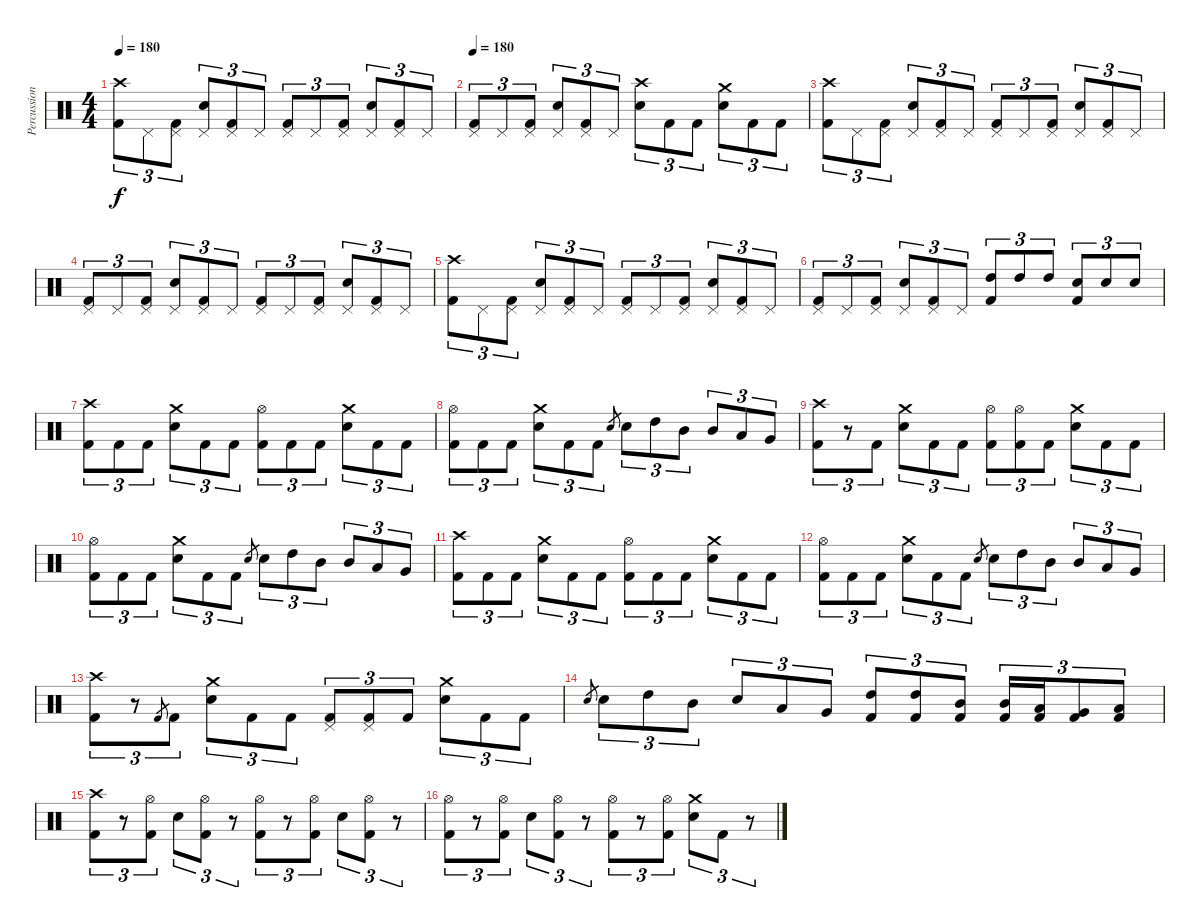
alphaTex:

\track ("Percussion" "Percussion") {instrument percussion}
\staff {score}
\articulation defaults
\ts (4 4)
\tempo 180
\clef neutral
\ks c
("Crash high (hit)" "Kick (hit) 2").8{tu (3 2) dy f} "Pedal Hi-Hat (hit)".8{tu (3 2)} ("Pedal Hi-Hat (hit)" "Kick (hit) 2").8{tu (3 2)} ("Pedal Hi-Hat (hit)" "Snare (hit) 2").8{tu (3 2)} ("Pedal Hi-Hat (hit)" "Kick (hit) 2").8{tu (3 2)} "Pedal Hi-Hat (hit)".8{tu (3 2)} ("Pedal Hi-Hat (hit)" "Kick (hit) 2").8{tu (3 2)} "Pedal Hi-Hat (hit)".8{tu (3 2)} ("Pedal Hi-Hat (hit)" "Kick (hit) 2").8{tu (3 2)} ("Pedal Hi-Hat (hit)" "Snare (hit) 2").8{tu (3 2)} ("Pedal Hi-Hat (hit)" "Kick (hit) 2").8{tu (3 2)} "Pedal Hi-Hat (hit)".8{tu (3 2)} |
\tempo 180
("Pedal Hi-Hat (hit)" "Kick (hit) 2").8{tu (3 2)} "Pedal Hi-Hat (hit)".8{tu (3 2)} ("Pedal Hi-Hat (hit)" "Kick (hit) 2").8{tu (3 2)} ("Pedal Hi-Hat (hit)" "Snare (hit) 2").8{tu (3 2)} ("Pedal Hi-Hat (hit)" "Kick (hit) 2").8{tu (3 2)} "Pedal Hi-Hat (hit)".8{tu (3 2)} ("Crash high (hit)" "Snare (hit) 2").8{tu (3 2)} "Kick (hit) 2".8{tu (3 2)} "Kick (hit) 2".8{tu (3 2)} ("Crash medium (hit)" "Snare (hit) 2").8{tu (3 2)} "Kick (hit) 2".8{tu (3 2)} "Kick (hit) 2".8{tu (3 2)} |
("Crash high (hit)" "Kick (hit) 2").8{tu (3 2)} "Pedal Hi-Hat (hit)".8{tu (3 2)} ("Pedal Hi-Hat (hit)" "Kick (hit) 2").8{tu (3 2)} ("Pedal Hi-Hat (hit)" "Snare (hit) 2").8{tu (3 2)} ("Pedal Hi-Hat (hit)" "Kick (hit) 2").8{tu (3 2)} "Pedal Hi-Hat (hit)".8{tu (3 2)} ("Pedal Hi-Hat (hit)" "Kick (hit) 2").8{tu (3 2)} "Pedal Hi-Hat (hit)".8{tu (3 2)} ("Pedal Hi-Hat (hit)" "Kick (hit) 2").8{tu (3 2)} ("Pedal Hi-Hat (hit)" "Snare (hit) 2").8{tu (3 2)} ("Pedal Hi-Hat (hit)" "Kick (hit) 2").8{tu (3 2)} "Pedal Hi-Hat (hit)".8{tu (3 2)} |
("Pedal Hi-Hat (hit)" "Kick (hit) 2").8{tu (3 2)} "Pedal Hi-Hat (hit)".8{tu (3 2)} ("Pedal Hi-Hat (hit)" "Kick (hit) 2").8{tu (3 2)} ("Pedal Hi-Hat (hit)" "Snare (hit) 2").8{tu (3 2)} ("Pedal Hi-Hat (hit)" "Kick (hit) 2").8{tu (3 2)} "Pedal Hi-Hat (hit)".8{tu (3 2)} ("Pedal Hi-Hat (hit)" "Kick (hit) 2").8{tu (3 2)} "Pedal Hi-Hat (hit)".8{tu (3 2)} ("Pedal Hi-Hat (hit)" "Kick (hit) 2").8{tu (3 2)} ("Pedal Hi-Hat (hit)" "Snare (hit) 2").8{tu (3 2)} ("Pedal Hi-Hat (hit)" "Kick (hit) 2").8{tu (3 2)} "Pedal Hi-Hat (hit)".8{tu (3 2)} |
("Crash high (hit)" "Kick (hit) 2").8{tu (3 2)} "Pedal Hi-Hat (hit)".8{tu (3 2)} ("Pedal Hi-Hat (hit)" "Kick (hit) 2").8{tu (3 2)} ("Pedal Hi-Hat (hit)" "Snare (hit) 2").8{tu (3 2)} ("Pedal Hi-Hat (hit)" "Kick (hit) 2").8{tu (3 2)} "Pedal Hi-Hat (hit)".8{tu (3 2)} ("Pedal Hi-Hat (hit)" "Kick (hit) 2").8{tu (3 2)} "Pedal Hi-Hat (hit)".8{tu (3 2)} ("Pedal Hi-Hat (hit)" "Kick (hit) 2").8{tu (3 2)} ("Pedal Hi-Hat (hit)" "Snare (hit) 2").8{tu (3 2)} ("Pedal Hi-Hat (hit)" "Kick (hit) 2").8{tu (3 2)} "Pedal Hi-Hat (hit)".8{tu (3 2)} |
("Pedal Hi-Hat (hit)" "Kick (hit) 2").8{tu (3 2)} "Pedal Hi-Hat (hit)".8{tu (3 2)} ("Pedal Hi-Hat (hit)" "Kick (hit) 2").8{tu (3 2)} ("Pedal Hi-Hat (hit)" "Snare (hit) 2").8{tu (3 2)} ("Pedal Hi-Hat (hit)" "Kick (hit) 2").8{tu (3 2)} "Pedal Hi-Hat (hit)".8{tu (3 2)} ("High Tom (hit)" "Kick (hit) 2").8{tu (3 2)} "High Tom (hit)".8{tu (3 2)} "High Tom (hit)".8{tu (3 2)} ("Snare (hit) 2" "Kick (hit) 2").8{tu (3 2)} "Snare (hit) 2".8{tu (3 2)} "Snare (hit) 2".8{tu (3 2)} |
("Crash high (hit)" "Kick (hit) 2").8{tu (3 2)} "Kick (hit) 2".8{tu (3 2)} "Kick (hit) 2".8{tu (3 2)} ("Crash medium (hit)" "Snare (hit) 2").8{tu (3 2)} "Kick (hit) 2".8{tu (3 2)} "Kick (hit) 2".8{tu (3 2)} ("Hi-Hat (open)" "Kick (hit) 2").8{tu (3 2)} "Kick (hit) 2".8{tu (3 2)} "Kick (hit) 2".8{tu (3 2)} ("Crash medium (hit)" "Snare (hit) 2").8{tu (3 2)} "Kick (hit) 2".8{tu (3 2)} "Kick (hit) 2".8{tu (3 2)} |
("Hi-Hat (open)" "Kick (hit) 2").8{tu (3 2)} "Kick (hit) 2".8{tu (3 2)} "Kick (hit) 2".8{tu (3 2)} ("Crash medium (hit)" "Snare (hit) 2").8{tu (3 2)} "Kick (hit) 2".8{tu (3 2)} "Kick (hit) 2".8{tu (3 2)} "Snare (hit) 2".8{gr} "Snare (hit) 2".8{tu (3 2)} "High Tom (hit)".8{tu (3 2)} "Mid Tom (hit)".8{tu (3 2)} "Mid Tom (hit)".8{tu (3 2)} "Low Tom (hit)".8{tu (3 2)} "Very Low Tom (hit)".8{tu (3 2)} |
("Crash high (hit)" "Kick (hit) 2").8{tu (3 2)} r.8{tu (3 2)} "Kick (hit) 2".8{tu (3 2)} ("Crash medium (hit)" "Snare (hit) 2").8{tu (3 2)} "Kick (hit) 2".8{tu (3 2)} "Kick (hit) 2".8{tu (3 2)} ("Hi-Hat (open)" "Kick (hit) 2").8{tu (3 2)} ("Hi-Hat (open)" "Kick (hit) 2").8{tu (3 2)} "Kick (hit) 2".8{tu (3 2)} ("Crash medium (hit)" "Snare (hit) 2").8{tu (3 2)} "Kick (hit) 2".8{tu (3 2)} "Kick (hit) 2".8{tu (3 2)} |
("Hi-Hat (open)" "Kick (hit) 2").8{tu (3 2)} "Kick (hit) 2".8{tu (3 2)} "Kick (hit) 2".8{tu (3 2)} ("Crash medium (hit)" "Snare (hit) 2").8{tu (3 2)} "Kick (hit) 2".8{tu (3 2)} "Kick (hit) 2".8{tu (3 2)} "Snare (hit) 2".8{gr} "Snare (hit) 2".8{tu (3 2)} "High Tom (hit)".8{tu (3 2)} "Mid Tom (hit)".8{tu (3 2)} "Mid Tom (hit)".8{tu (3 2)} "Low Tom (hit)".8{tu (3 2)} "Very Low Tom (hit)".8{tu (3 2)} |
("Crash high (hit)" "Kick (hit) 2").8{tu (3 2)} "Kick (hit) 2".8{tu (3 2)} "Kick (hit) 2".8{tu (3 2)} ("Crash medium (hit)" "Snare (hit) 2").8{tu (3 2)} "Kick (hit) 2".8{tu (3 2)} "Kick (hit) 2".8{tu (3 2)} ("Hi-Hat (open)" "Kick (hit) 2").8{tu (3 2)} "Kick (hit) 2".8{tu (3 2)} "Kick (hit) 2".8{tu (3 2)} ("Crash medium (hit)" "Snare (hit) 2").8{tu (3 2)} "Kick (hit) 2".8{tu (3 2)} "Kick (hit) 2".8{tu (3 2)} |
("Hi-Hat (open)" "Kick (hit) 2").8{tu (3 2)} "Kick (hit) 2".8{tu (3 2)} "Kick (hit) 2".8{tu (3 2)} ("Crash medium (hit)" "Snare (hit) 2").8{tu (3 2)} "Kick (hit) 2".8{tu (3 2)} "Kick (hit) 2".8{tu (3 2)} "Snare (hit) 2".8{gr} "Snare (hit) 2".8{tu (3 2)} "High Tom (hit)".8{tu (3 2)} "Mid Tom (hit)".8{tu (3 2)} "Mid Tom (hit)".8{tu (3 2)} "Low Tom (hit)".8{tu (3 2)} "Very Low Tom (hit)".8{tu (3 2)} |
("Crash high (hit)" "Kick (hit) 2").8{tu (3 2)} r.8{tu (3 2)} "Kick (hit) 2".8{gr} "Kick (hit) 2".8{tu (3 2)} ("Crash medium (hit)" "Snare (hit) 2").8{tu (3 2)} "Kick (hit) 2".8{tu (3 2)} "Kick (hit) 2".8{tu (3 2)} ("Pedal Hi-Hat (hit)" "Kick (hit) 2").8{tu (3 2)} ("Pedal Hi-Hat (hit)" "Kick (hit) 2").8{tu (3 2)} "Kick (hit) 2".8{tu (3 2)} ("Crash medium (hit)" "Snare (hit) 2").8{tu (3 2)} "Kick (hit) 2".8{tu (3 2)} "Kick (hit) 2".8{tu (3 2)} |
"Snare (hit) 2".8{gr} "Snare (hit) 2".8{tu (3 2)} "High Tom (hit)".8{tu (3 2)} "Mid Tom (hit)".8{tu (3 2)} "Snare (hit) 2".8{tu (3 2)} "Low Tom (hit)".8{tu (3 2)} "Very Low Tom (hit)".8{tu (3 2)} ("High Tom (hit)" "Kick (hit) 2").8{tu (3 2)} ("High Tom (hit)" "Kick (hit) 2").8{tu (3 2)} ("Mid Tom (hit)" "Kick (hit) 2").8{tu (3 2)} ("Mid Tom (hit)" "Kick (hit) 2").16{tu (3 2)} ("Low Tom (hit)" "Kick (hit) 2").16{tu (3 2)} ("Very Low Tom (hit)" "Kick (hit) 2").8{tu (3 2)} ("Low Floor Tom (hit)" "Kick (hit) 2").8{tu (3 2)} |
("Crash high (hit)" "Kick (hit) 2").8{tu (3 2)} r.8{tu (3 2)} ("Hi-Hat (open)" "Kick (hit) 2").8{tu (3 2)} "Snare (hit) 2".8{tu (3 2)} ("Hi-Hat (open)" "Kick (hit) 2").8{tu (3 2)} r.8{tu (3 2)} ("Hi-Hat (open)" "Kick (hit) 2").8{tu (3 2)} r.8{tu (3 2)} ("Hi-Hat (open)" "Kick (hit) 2").8{tu (3 2)} "Snare (hit) 2".8{tu (3 2)} ("Hi-Hat (open)" "Kick (hit) 2").8{tu (3 2)} r.8{tu (3 2)} |
("Hi-Hat (open)" "Kick (hit) 2").8{tu (3 2)} r.8{tu (3 2)} ("Hi-Hat (open)" "Kick (hit) 2").8{tu (3 2)} "Snare (hit) 2".8{tu (3 2)} ("Hi-Hat (open)" "Kick (hit) 2").8{tu (3 2)} r.8{tu (3 2)} ("Hi-Hat (open)" "Kick (hit) 2").8{tu (3 2)} r.8{tu (3 2)} ("Hi-Hat (open)" "Kick (hit) 2").8{tu (3 2)} ("Crash medium (hit)" "Snare (hit) 2").8{tu (3 2)} "Kick (hit) 2".8{tu (3 2)} r.8{tu (3 2)}
